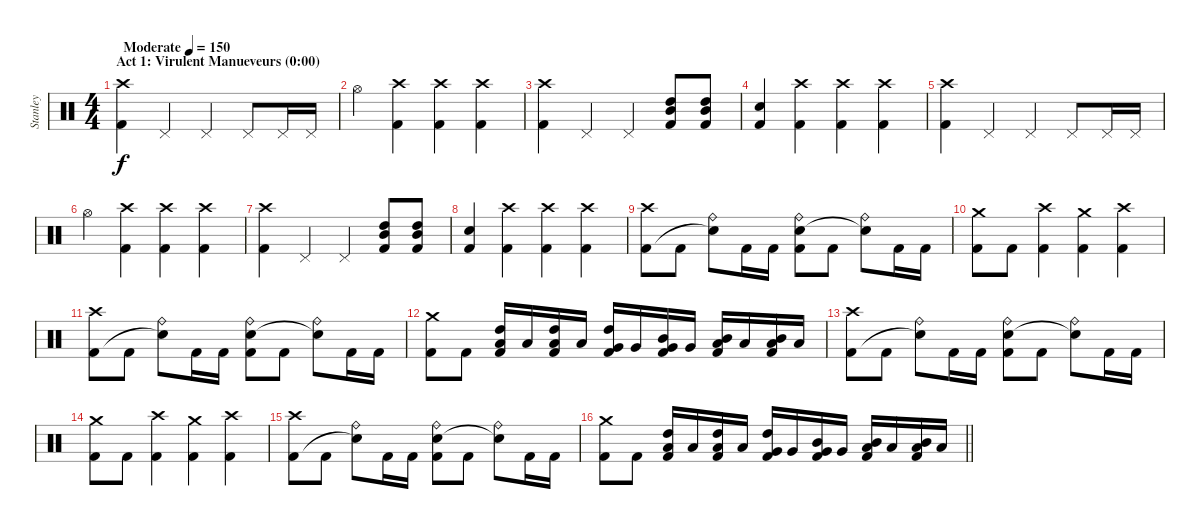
\track ("Stanley" "Stanley") {instrument percussion}
\staff {score}
\articulation defaults
\ts (4 4)
\section ("" "Act 1: Virulent Manueveurs (0:00)")
\tempo (150 "Moderate")
\clef neutral
\ks c
("Crash high (hit)" "Kick (hit) 2").4{dy f} "Pedal Hi-Hat (hit)".4 "Pedal Hi-Hat (hit)".4 "Pedal Hi-Hat (hit)".8 "Pedal Hi-Hat (hit)".16 "Pedal Hi-Hat (hit)".16 |
"Hi-Hat (open)".4 ("Crash high (hit)" "Kick (hit) 2").4 ("Crash high (hit)" "Kick (hit) 2").4 ("Crash high (hit)" "Kick (hit) 2").4 |
("Crash high (hit)" "Kick (hit) 2").4 "Pedal Hi-Hat (hit)".4 "Pedal Hi-Hat (hit)".4 ("High Tom (hit)" "Mid Tom (hit)" "Kick (hit) 2").8 ("High Tom (hit)" "Mid Tom (hit)" "Kick (hit) 2").8 |
("Electric Snare (hit)" "Kick (hit) 2").4 ("Crash high (hit)" "Kick (hit) 2").4 ("Crash high (hit)" "Kick (hit) 2").4 ("Crash high (hit)" "Kick (hit) 2").4 |
("Crash high (hit)" "Kick (hit) 2").4 "Pedal Hi-Hat (hit)".4 "Pedal Hi-Hat (hit)".4 "Pedal Hi-Hat (hit)".8 "Pedal Hi-Hat (hit)".16 "Pedal Hi-Hat (hit)".16 |
"Hi-Hat (open)".4 ("Crash high (hit)" "Kick (hit) 2").4 ("Crash high (hit)" "Kick (hit) 2").4 ("Crash high (hit)" "Kick (hit) 2").4 |
("Crash high (hit)" "Kick (hit) 2").4 "Pedal Hi-Hat (hit)".4 "Pedal Hi-Hat (hit)".4 ("High Tom (hit)" "Mid Tom (hit)" "Kick (hit) 2").8 ("High Tom (hit)" "Mid Tom (hit)" "Kick (hit) 2").8 |
("Electric Snare (hit)" "Kick (hit) 2").4 ("Crash high (hit)" "Kick (hit) 2").4 ("Crash high (hit)" "Kick (hit) 2").4 ("Crash high (hit)" "Kick (hit) 2").4 |
("Crash high (hit)" "Kick (hit) 2").8 "Kick (hit) 2".8 ("Ride (bell)" "Snare (hit)"{t}).8 "Kick (hit) 2".16 "Kick (hit) 2".16 ("Ride (bell)" "Electric Snare (hit)" "Kick (hit) 2").8 "Kick (hit) 2".8 ("Ride (bell)" "Snare (hit)"{t}).8 "Kick (hit) 2".16 "Kick (hit) 2".16 |
("Crash medium (hit)" "Kick (hit) 2").8 "Kick (hit) 2".8 ("Crash high (hit)" "Kick (hit) 2").4 ("Crash medium (hit)" "Kick (hit) 2").4 ("Crash high (hit)" "Kick (hit) 2").4 |
("Crash high (hit)" "Kick (hit) 2").8 "Kick (hit) 2".8 ("Ride (bell)" "Snare (hit)"{t}).8 "Kick (hit) 2".16 "Kick (hit) 2".16 ("Ride (bell)" "Electric Snare (hit)" "Kick (hit) 2").8 "Kick (hit) 2".8 ("Ride (bell)" "Snare (hit)"{t}).8 "Kick (hit) 2".16 "Kick (hit) 2".16 |
("Crash medium (hit)" "Kick (hit) 2").8 "Kick (hit) 2".8 ("High Tom (hit)" "Low Tom (hit)" "Kick (hit) 2").16 "Low Tom (hit)".16 ("High Tom (hit)" "Low Tom (hit)" "Kick (hit) 2").16 "Low Tom (hit)".16 ("High Tom (hit)" "Very Low Tom (hit)" "Kick (hit) 2").16 "Very Low Tom (hit)".16 ("Mid Tom (hit)" "Very Low Tom (hit)" "Kick (hit) 2").16 "Very Low Tom (hit)".16 ("Mid Tom (hit)" "Low Floor Tom (hit)" "Kick (hit) 2").16 "Low Floor Tom (hit)".16 ("Mid Tom (hit)" "Low Floor Tom (hit)" "Kick (hit) 2").16 "Low Floor Tom (hit)".16 |
("Crash high (hit)" "Kick (hit) 2").8 "Kick (hit) 2".8 ("Ride (bell)" "Snare (hit)"{t}).8 "Kick (hit) 2".16 "Kick (hit) 2".16 ("Ride (bell)" "Electric Snare (hit)" "Kick (hit) 2").8 "Kick (hit) 2".8 ("Ride (bell)" "Snare (hit)"{t}).8 "Kick (hit) 2".16 "Kick (hit) 2".16 |
("Crash medium (hit)" "Kick (hit) 2").8 "Kick (hit) 2".8 ("Crash high (hit)" "Kick (hit) 2").4 ("Crash medium (hit)" "Kick (hit) 2").4 ("Crash high (hit)" "Kick (hit) 2").4 |
("Crash high (hit)" "Kick (hit) 2").8 "Kick (hit) 2".8 ("Ride (bell)" "Snare (hit)"{t}).8 "Kick (hit) 2".16 "Kick (hit) 2".16 ("Ride (bell)" "Electric Snare (hit)" "Kick (hit) 2").8 "Kick (hit) 2".8 ("Ride (bell)" "Snare (hit)"{t}).8 "Kick (hit) 2".16 "Kick (hit) 2".16 |
\barLineRight lightlight
("Crash medium (hit)" "Kick (hit) 2").8 "Kick (hit) 2".8 ("High Tom (hit)" "Low Tom (hit)" "Kick (hit) 2").16 "Low Tom (hit)".16 ("High Tom (hit)" "Low Tom (hit)" "Kick (hit) 2").16 "Low Tom (hit)".16 ("High Tom (hit)" "Very Low Tom (hit)" "Kick (hit) 2").16 "Very Low Tom (hit)".16 ("Mid Tom (hit)" "Very Low Tom (hit)" "Kick (hit) 2").16 "Very Low Tom (hit)".16 ("Mid Tom (hit)" "Low Floor Tom (hit)" "Kick (hit) 2").16 "Low Floor Tom (hit)".16 ("Mid Tom (hit)" "Low Floor Tom (hit)" "Kick (hit) 2").16 "Low Floor Tom (hit)".16
